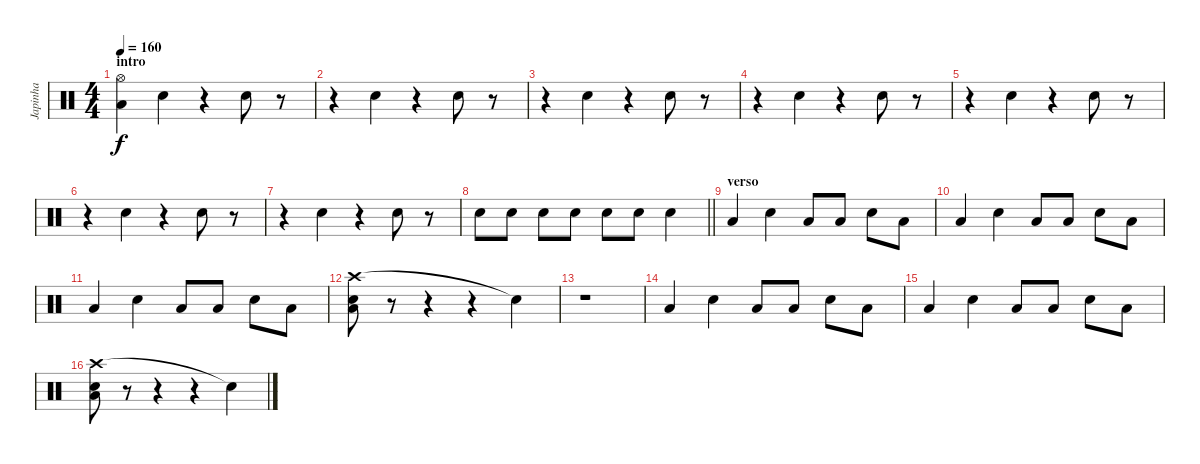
\track ("Japinha" "Japinha") {instrument percussion}
\staff {score}
\articulation defaults
\ts (4 4)
\section ("" "intro")
\tempo 160
\clef neutral
\ks c
("Hi-Hat (open)" "Low Tom (hit)").4{dy f} "Snare (hit) 2".4 r.4 "Snare (hit) 2".8 r.8 |
r.4 "Snare (hit) 2".4 r.4 "Snare (hit) 2".8 r.8 |
r.4 "Snare (hit) 2".4 r.4 "Snare (hit) 2".8 r.8 |
r.4 "Snare (hit) 2".4 r.4 "Snare (hit) 2".8 r.8 |
r.4 "Snare (hit) 2".4 r.4 "Snare (hit) 2".8 r.8 |
r.4 "Snare (hit) 2".4 r.4 "Snare (hit) 2".8 r.8 |
r.4 "Snare (hit) 2".4 r.4 "Snare (hit) 2".8 r.8 |
\barLineRight lightlight "Snare (hit) 2".8 "Snare (hit) 2".8 "Snare (hit) 2".8 "Snare (hit) 2".8 "Snare (hit) 2".8 "Electric Snare (hit)".8 "Snare (hit) 2".4
|
\section ("" "verso")
"Low Tom (hit)".4 "Snare (hit) 2".4 "Low Tom (hit)".8 "Low Tom (hit)".8 "Snare (hit) 2".8 "Low Tom (hit)".8 |
"Low Tom (hit)".4 "Snare (hit) 2".4 "Low Tom (hit)".8 "Low Tom (hit)".8 "Snare (hit) 2".8 "Low Tom (hit)".8 |
"Low Tom (hit)".4 "Snare (hit) 2".4 "Low Tom (hit)".8 "Low Tom (hit)".8 "Snare (hit) 2".8 "Low Tom (hit)".8 |
("Crash high (hit)" "Low Tom (hit)" "Snare (hit) 2").8 r.8 r.4 r.4 "Snare (hit)"{t}.4 |
r.1 |
"Low Tom (hit)".4 "Snare (hit) 2".4 "Low Tom (hit)".8 "Low Tom (hit)".8 "Snare (hit) 2".8 "Low Tom (hit)".8 |
"Low Tom (hit)".4 "Snare (hit) 2".4 "Low Tom (hit)".8 "Low Tom (hit)".8 "Snare (hit) 2".8 "Low Tom (hit)".8 |
("Crash high (hit)" "Low Tom (hit)" "Snare (hit) 2").8 r.8 r.4 r.4 "Snare (hit)"{t}.4
